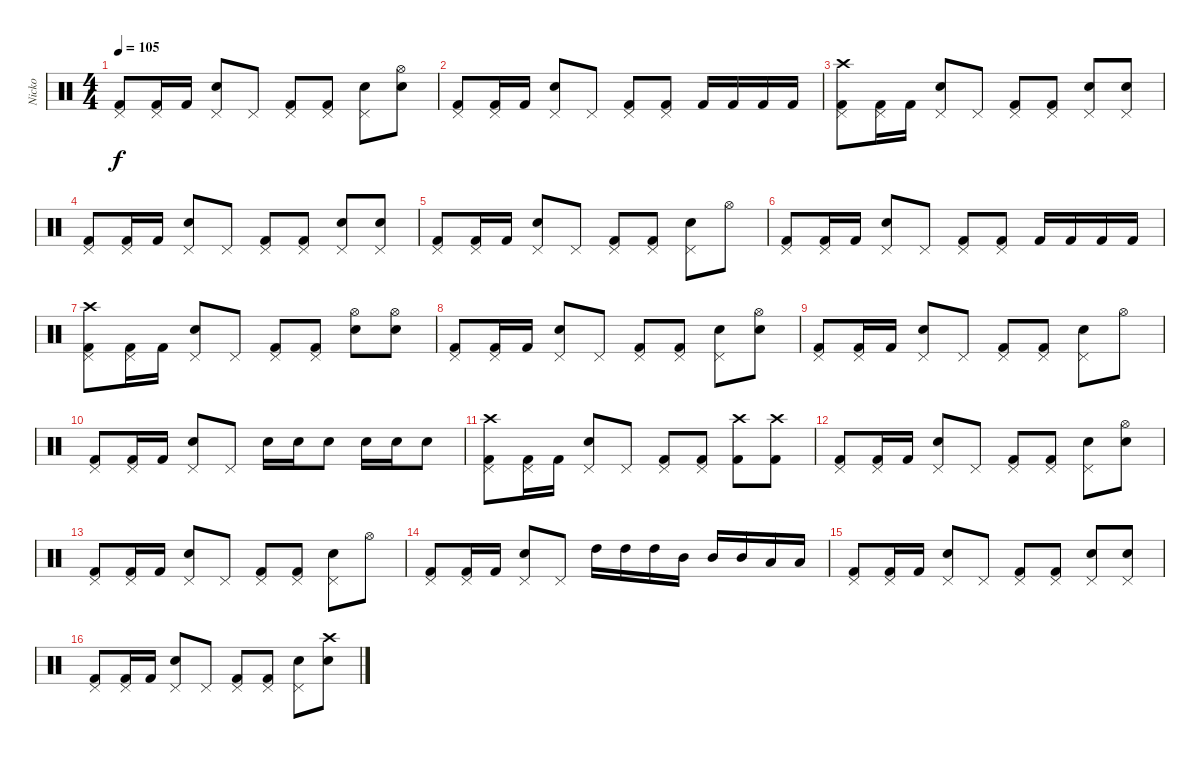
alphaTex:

\track ("Nicko" "Nicko") {instrument percussion}
\staff {score}
\articulation defaults
\ts (4 4)
\tempo 105
\clef neutral
\ks c
("Kick (hit) 2" "Pedal Hi-Hat (hit)").8{dy f} ("Kick (hit) 2" "Pedal Hi-Hat (hit)").16 "Kick (hit) 2".16 ("Snare (hit) 2" "Pedal Hi-Hat (hit)").8 "Pedal Hi-Hat (hit)".8 ("Kick (hit) 2" "Pedal Hi-Hat (hit)").8 ("Kick (hit) 2" "Pedal Hi-Hat (hit)").8 ("Snare (hit) 2" "Pedal Hi-Hat (hit)").8 ("Snare (hit) 2" "Hi-Hat (open)").8 |
("Kick (hit) 2" "Pedal Hi-Hat (hit)").8 ("Kick (hit) 2" "Pedal Hi-Hat (hit)").16 "Kick (hit) 2".16 ("Snare (hit) 2" "Pedal Hi-Hat (hit)").8 "Pedal Hi-Hat (hit)".8 ("Kick (hit) 2" "Pedal Hi-Hat (hit)").8 ("Kick (hit) 2" "Pedal Hi-Hat (hit)").8 "Kick (hit) 2".16 "Kick (hit) 2".16 "Kick (hit) 2".16 "Kick (hit) 2".16 |
("Kick (hit) 2" "Pedal Hi-Hat (hit)" "Crash high (hit)").8 ("Kick (hit) 2" "Pedal Hi-Hat (hit)").16 "Kick (hit) 2".16 ("Snare (hit) 2" "Pedal Hi-Hat (hit)").8 "Pedal Hi-Hat (hit)".8 ("Kick (hit) 2" "Pedal Hi-Hat (hit)").8 ("Kick (hit) 2" "Pedal Hi-Hat (hit)").8 ("Snare (hit) 2" "Pedal Hi-Hat (hit)").8 ("Snare (hit) 2" "Pedal Hi-Hat (hit)").8 |
("Kick (hit) 2" "Pedal Hi-Hat (hit)").8 ("Kick (hit) 2" "Pedal Hi-Hat (hit)").16 "Kick (hit) 2".16 ("Snare (hit) 2" "Pedal Hi-Hat (hit)").8 "Pedal Hi-Hat (hit)".8 ("Kick (hit) 2" "Pedal Hi-Hat (hit)").8 ("Kick (hit) 2" "Pedal Hi-Hat (hit)").8 ("Snare (hit) 2" "Pedal Hi-Hat (hit)").8 ("Snare (hit) 2" "Pedal Hi-Hat (hit)").8 |
("Kick (hit) 2" "Pedal Hi-Hat (hit)").8 ("Kick (hit) 2" "Pedal Hi-Hat (hit)").16 "Kick (hit) 2".16 ("Snare (hit) 2" "Pedal Hi-Hat (hit)").8 "Pedal Hi-Hat (hit)".8 ("Kick (hit) 2" "Pedal Hi-Hat (hit)").8 ("Kick (hit) 2" "Pedal Hi-Hat (hit)").8 ("Snare (hit) 2" "Pedal Hi-Hat (hit)").8 "Hi-Hat (open)".8 |
("Kick (hit) 2" "Pedal Hi-Hat (hit)").8 ("Kick (hit) 2" "Pedal Hi-Hat (hit)").16 "Kick (hit) 2".16 ("Snare (hit) 2" "Pedal Hi-Hat (hit)").8 "Pedal Hi-Hat (hit)".8 ("Kick (hit) 2" "Pedal Hi-Hat (hit)").8 ("Kick (hit) 2" "Pedal Hi-Hat (hit)").8 "Kick (hit) 2".16 "Kick (hit) 2".16 "Kick (hit) 2".16 "Kick (hit) 2".16 |
("Kick (hit) 2" "Pedal Hi-Hat (hit)" "Crash high (hit)").8 ("Kick (hit) 2" "Pedal Hi-Hat (hit)").16 "Kick (hit) 2".16 ("Snare (hit) 2" "Pedal Hi-Hat (hit)").8 "Pedal Hi-Hat (hit)".8 ("Kick (hit) 2" "Pedal Hi-Hat (hit)").8 ("Kick (hit) 2" "Pedal Hi-Hat (hit)").8 ("Snare (hit) 2" "Hi-Hat (open)").8 ("Snare (hit) 2" "Hi-Hat (open)").8 |
("Kick (hit) 2" "Pedal Hi-Hat (hit)").8 ("Kick (hit) 2" "Pedal Hi-Hat (hit)").16 "Kick (hit) 2".16 ("Snare (hit) 2" "Pedal Hi-Hat (hit)").8 "Pedal Hi-Hat (hit)".8 ("Kick (hit) 2" "Pedal Hi-Hat (hit)").8 ("Kick (hit) 2" "Pedal Hi-Hat (hit)").8 ("Snare (hit) 2" "Pedal Hi-Hat (hit)").8 ("Snare (hit) 2" "Hi-Hat (open)").8 |
("Kick (hit) 2" "Pedal Hi-Hat (hit)").8 ("Kick (hit) 2" "Pedal Hi-Hat (hit)").16 "Kick (hit) 2".16 ("Snare (hit) 2" "Pedal Hi-Hat (hit)").8 "Pedal Hi-Hat (hit)".8 ("Kick (hit) 2" "Pedal Hi-Hat (hit)").8 ("Kick (hit) 2" "Pedal Hi-Hat (hit)").8 ("Snare (hit) 2" "Pedal Hi-Hat (hit)").8 "Hi-Hat (open)".8 |
("Kick (hit) 2" "Pedal Hi-Hat (hit)").8 ("Kick (hit) 2" "Pedal Hi-Hat (hit)").16 "Kick (hit) 2".16 ("Snare (hit) 2" "Pedal Hi-Hat (hit)").8 "Pedal Hi-Hat (hit)".8 "Snare (hit) 2".16 "Snare (hit) 2".16 "Snare (hit) 2".8 "Snare (hit) 2".16 "Snare (hit) 2".16 "Snare (hit) 2".8 |
("Kick (hit) 2" "Pedal Hi-Hat (hit)" "Crash high (hit)").8 ("Kick (hit) 2" "Pedal Hi-Hat (hit)").16 "Kick (hit) 2".16 ("Snare (hit) 2" "Pedal Hi-Hat (hit)").8 "Pedal Hi-Hat (hit)".8 ("Kick (hit) 2" "Pedal Hi-Hat (hit)").8 ("Kick (hit) 2" "Pedal Hi-Hat (hit)").8 ("Kick (hit) 2" "Crash high (hit)").8 ("Kick (hit) 2" "Crash high (hit)").8 |
("Kick (hit) 2" "Pedal Hi-Hat (hit)").8 ("Kick (hit) 2" "Pedal Hi-Hat (hit)").16 "Kick (hit) 2".16 ("Snare (hit) 2" "Pedal Hi-Hat (hit)").8 "Pedal Hi-Hat (hit)".8 ("Kick (hit) 2" "Pedal Hi-Hat (hit)").8 ("Kick (hit) 2" "Pedal Hi-Hat (hit)").8 ("Snare (hit) 2" "Pedal Hi-Hat (hit)").8 ("Snare (hit) 2" "Hi-Hat (open)").8 |
("Kick (hit) 2" "Pedal Hi-Hat (hit)").8 ("Kick (hit) 2" "Pedal Hi-Hat (hit)").16 "Kick (hit) 2".16 ("Snare (hit) 2" "Pedal Hi-Hat (hit)").8 "Pedal Hi-Hat (hit)".8 ("Kick (hit) 2" "Pedal Hi-Hat (hit)").8 ("Kick (hit) 2" "Pedal Hi-Hat (hit)").8 ("Snare (hit) 2" "Pedal Hi-Hat (hit)").8 "Hi-Hat (open)".8 |
("Kick (hit) 2" "Pedal Hi-Hat (hit)").8 ("Kick (hit) 2" "Pedal Hi-Hat (hit)").16 "Kick (hit) 2".16 ("Snare (hit) 2" "Pedal Hi-Hat (hit)").8 "Pedal Hi-Hat (hit)".8 "High Tom (hit)".16 "High Tom (hit)".16 "High Tom (hit)".16 "Mid Tom (hit)".16 "Mid Tom (hit)".16 "Mid Tom (hit)".16 "Low Tom (hit)".16 "Low Tom (hit)".16 |
("Kick (hit) 2" "Pedal Hi-Hat (hit)").8 ("Kick (hit) 2" "Pedal Hi-Hat (hit)").16 "Kick (hit) 2".16 ("Snare (hit) 2" "Pedal Hi-Hat (hit)").8 "Pedal Hi-Hat (hit)".8 ("Kick (hit) 2" "Pedal Hi-Hat (hit)").8 ("Kick (hit) 2" "Pedal Hi-Hat (hit)").8 ("Snare (hit) 2" "Pedal Hi-Hat (hit)").8 ("Snare (hit) 2" "Pedal Hi-Hat (hit)").8 |
("Kick (hit) 2" "Pedal Hi-Hat (hit)").8 ("Kick (hit) 2" "Pedal Hi-Hat (hit)").16 "Kick (hit) 2".16 ("Snare (hit) 2" "Pedal Hi-Hat (hit)").8 "Pedal Hi-Hat (hit)".8 ("Kick (hit) 2" "Pedal Hi-Hat (hit)").8 ("Kick (hit) 2" "Pedal Hi-Hat (hit)").8 ("Snare (hit) 2" "Pedal Hi-Hat (hit)").8 ("Snare (hit) 2" "Crash high (hit)").8
